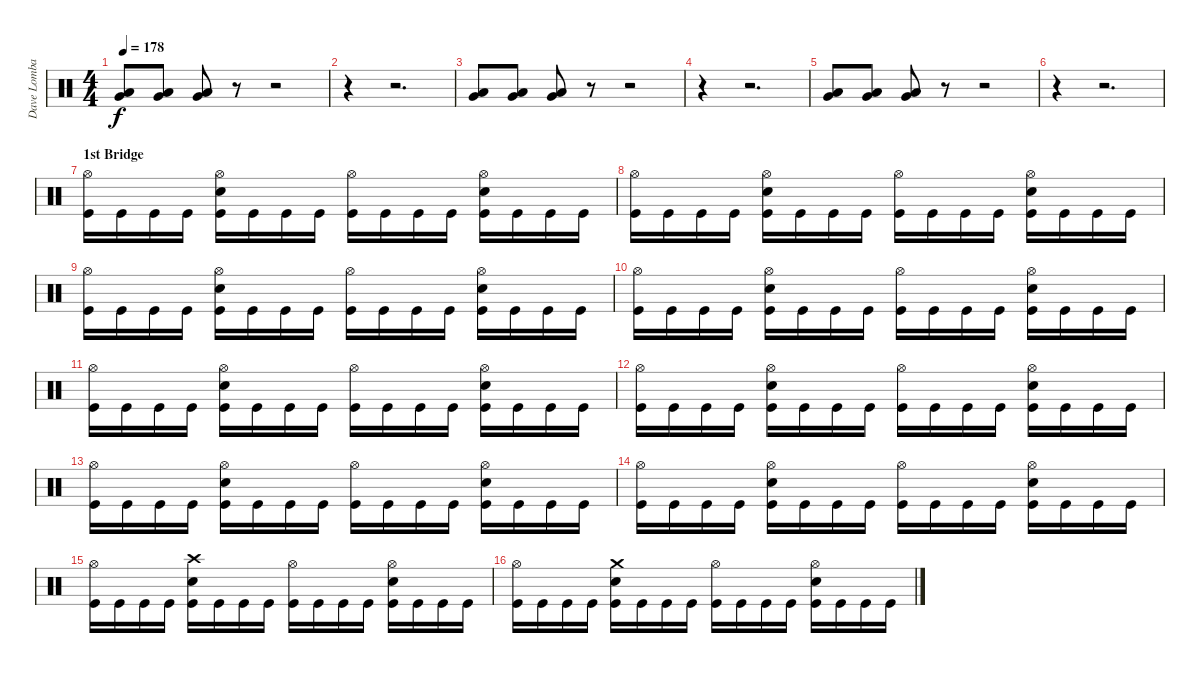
\track ("Dave Lombardo" "Dave Lomba") {instrument percussion}
\staff {score}
\articulation defaults
\ts (4 4)
\tempo 178
\clef neutral
\ks c
("Low Floor Tom (hit)" "Very Low Tom (hit)").8{dy f} ("Low Floor Tom (hit)" "Very Low Tom (hit)").8 ("Low Floor Tom (hit)" "Very Low Tom (hit)").8 r.8 r.2 |
r.4 r.2{d} |
("Low Floor Tom (hit)" "Very Low Tom (hit)").8 ("Low Floor Tom (hit)" "Very Low Tom (hit)").8 ("Low Floor Tom (hit)" "Very Low Tom (hit)").8 r.8 r.2 |
r.4 r.2{d} |
("Low Floor Tom (hit)" "Very Low Tom (hit)").8 ("Low Floor Tom (hit)" "Very Low Tom (hit)").8 ("Low Floor Tom (hit)" "Very Low Tom (hit)").8 r.8 r.2 |
r.4 r.2{d} |
\section ("" "1st Bridge")
("Hi-Hat (open)" "Kick (hit)").16 "Kick (hit)".16 "Kick (hit)".16 "Kick (hit)".16 ("Hi-Hat (open)" "Snare (hit) 2" "Kick (hit)").16 "Kick (hit)".16 "Kick (hit)".16 "Kick (hit)".16 ("Hi-Hat (open)" "Kick (hit)").16 "Kick (hit)".16 "Kick (hit)".16 "Kick (hit)".16 ("Hi-Hat (open)" "Snare (hit) 2" "Kick (hit)").16 "Kick (hit)".16 "Kick (hit)".16 "Kick (hit)".16 |
("Hi-Hat (open)" "Kick (hit)").16 "Kick (hit)".16 "Kick (hit)".16 "Kick (hit)".16 ("Hi-Hat (open)" "Snare (hit) 2" "Kick (hit)").16 "Kick (hit)".16 "Kick (hit)".16 "Kick (hit)".16 ("Hi-Hat (open)" "Kick (hit)").16 "Kick (hit)".16 "Kick (hit)".16 "Kick (hit)".16 ("Hi-Hat (open)" "Snare (hit) 2" "Kick (hit)").16 "Kick (hit)".16 "Kick (hit)".16 "Kick (hit)".16 |
("Hi-Hat (open)" "Kick (hit)").16 "Kick (hit)".16 "Kick (hit)".16 "Kick (hit)".16 ("Hi-Hat (open)" "Snare (hit) 2" "Kick (hit)").16 "Kick (hit)".16 "Kick (hit)".16 "Kick (hit)".16 ("Hi-Hat (open)" "Kick (hit)").16 "Kick (hit)".16 "Kick (hit)".16 "Kick (hit)".16 ("Hi-Hat (open)" "Snare (hit) 2" "Kick (hit)").16 "Kick (hit)".16 "Kick (hit)".16 "Kick (hit)".16 |
("Hi-Hat (open)" "Kick (hit)").16 "Kick (hit)".16 "Kick (hit)".16 "Kick (hit)".16 ("Hi-Hat (open)" "Snare (hit) 2" "Kick (hit)").16 "Kick (hit)".16 "Kick (hit)".16 "Kick (hit)".16 ("Hi-Hat (open)" "Kick (hit)").16 "Kick (hit)".16 "Kick (hit)".16 "Kick (hit)".16 ("Hi-Hat (open)" "Snare (hit) 2" "Kick (hit)").16 "Kick (hit)".16 "Kick (hit)".16 "Kick (hit)".16 |
("Hi-Hat (open)" "Kick (hit)").16 "Kick (hit)".16 "Kick (hit)".16 "Kick (hit)".16 ("Hi-Hat (open)" "Snare (hit) 2" "Kick (hit)").16 "Kick (hit)".16 "Kick (hit)".16 "Kick (hit)".16 ("Hi-Hat (open)" "Kick (hit)").16 "Kick (hit)".16 "Kick (hit)".16 "Kick (hit)".16 ("Hi-Hat (open)" "Snare (hit) 2" "Kick (hit)").16 "Kick (hit)".16 "Kick (hit)".16 "Kick (hit)".16 |
("Hi-Hat (open)" "Kick (hit)").16 "Kick (hit)".16 "Kick (hit)".16 "Kick (hit)".16 ("Hi-Hat (open)" "Snare (hit) 2" "Kick (hit)").16 "Kick (hit)".16 "Kick (hit)".16 "Kick (hit)".16 ("Hi-Hat (open)" "Kick (hit)").16 "Kick (hit)".16 "Kick (hit)".16 "Kick (hit)".16 ("Hi-Hat (open)" "Snare (hit) 2" "Kick (hit)").16 "Kick (hit)".16 "Kick (hit)".16 "Kick (hit)".16 |
("Hi-Hat (open)" "Kick (hit)").16 "Kick (hit)".16 "Kick (hit)".16 "Kick (hit)".16 ("Hi-Hat (open)" "Snare (hit) 2" "Kick (hit)").16 "Kick (hit)".16 "Kick (hit)".16 "Kick (hit)".16 ("Hi-Hat (open)" "Kick (hit)").16 "Kick (hit)".16 "Kick (hit)".16 "Kick (hit)".16 ("Hi-Hat (open)" "Snare (hit) 2" "Kick (hit)").16 "Kick (hit)".16 "Kick (hit)".16 "Kick (hit)".16 |
("Hi-Hat (open)" "Kick (hit)").16 "Kick (hit)".16 "Kick (hit)".16 "Kick (hit)".16 ("Hi-Hat (open)" "Snare (hit) 2" "Kick (hit)").16 "Kick (hit)".16 "Kick (hit)".16 "Kick (hit)".16 ("Hi-Hat (open)" "Kick (hit)").16 "Kick (hit)".16 "Kick (hit)".16 "Kick (hit)".16 ("Hi-Hat (open)" "Snare (hit) 2" "Kick (hit)").16 "Kick (hit)".16 "Kick (hit)".16 "Kick (hit)".16 |
("Hi-Hat (open)" "Kick (hit)").16 "Kick (hit)".16 "Kick (hit)".16 "Kick (hit)".16 ("Crash high (hit)" "Snare (hit) 2" "Kick (hit)").16 "Kick (hit)".16 "Kick (hit)".16 "Kick (hit)".16 ("Hi-Hat (open)" "Kick (hit)").16 "Kick (hit)".16 "Kick (hit)".16 "Kick (hit)".16 ("Hi-Hat (open)" "Snare (hit) 2" "Kick (hit)").16 "Kick (hit)".16 "Kick (hit)".16 "Kick (hit)".16 |
("Hi-Hat (open)" "Kick (hit)").16 "Kick (hit)".16 "Kick (hit)".16 "Kick (hit)".16 ("Crash medium (hit)" "Snare (hit) 2" "Kick (hit)").16 "Kick (hit)".16 "Kick (hit)".16 "Kick (hit)".16 ("Hi-Hat (open)" "Kick (hit)").16 "Kick (hit)".16 "Kick (hit)".16 "Kick (hit)".16 ("Hi-Hat (open)" "Snare (hit) 2" "Kick (hit)").16 "Kick (hit)".16 "Kick (hit)".16 "Kick (hit)".16
